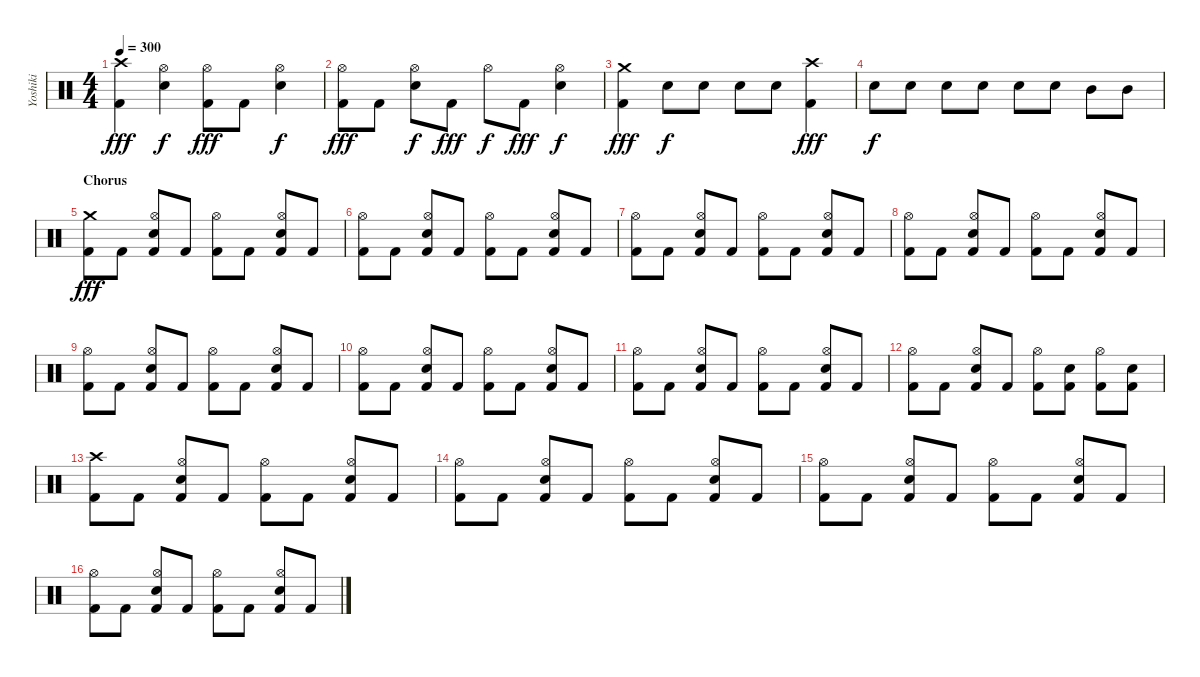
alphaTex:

\track ("Yoshiki" "Yoshiki") {instrument percussion}
\staff {score}
\articulation defaults
\ts (4 4)
\tempo 300
\clef neutral
\ks c
("Crash high (hit)" "Kick (hit) 2").4{dy fff} ("Hi-Hat (open)" "Snare (hit) 2").4{dy f} ("Hi-Hat (open)" "Kick (hit) 2").8{dy fff} "Kick (hit) 2".8 ("Hi-Hat (open)" "Snare (hit) 2").4{dy f} |
("Hi-Hat (open)" "Kick (hit) 2").8{dy fff} "Kick (hit) 2".8 ("Hi-Hat (open)" "Snare (hit) 2").8{dy f} "Kick (hit) 2".8{dy fff} "Hi-Hat (open)".8{dy f} "Kick (hit) 2".8{dy fff} ("Hi-Hat (open)" "Snare (hit) 2").4{dy f} |
("Crash medium (hit)" "Kick (hit) 2").4{dy fff} "Snare (hit) 2".8{dy f} "Snare (hit) 2".8 "Snare (hit) 2".8 "Snare (hit) 2".8 ("Crash high (hit)" "Kick (hit) 2").4{dy fff} |
"Snare (hit) 2".8{dy f} "Snare (hit) 2".8 "Snare (hit) 2".8 "Snare (hit) 2".8 "Snare (hit) 2".8 "Snare (hit) 2".8 "Mid Tom (hit)".8 "Mid Tom (hit)".8 |
\section ("" "Chorus")
("Crash medium (hit)" "Kick (hit) 2").8{dy fff} "Kick (hit) 2".8 ("Hi-Hat (open)" "Snare (hit) 2" "Kick (hit) 2").8 "Kick (hit) 2".8 ("Hi-Hat (open)" "Kick (hit) 2").8 "Kick (hit) 2".8 ("Hi-Hat (open)" "Snare (hit) 2" "Kick (hit) 2").8 "Kick (hit) 2".8 |
("Hi-Hat (open)" "Kick (hit) 2").8 "Kick (hit) 2".8 ("Hi-Hat (open)" "Snare (hit) 2" "Kick (hit) 2").8 "Kick (hit) 2".8 ("Hi-Hat (open)" "Kick (hit) 2").8 "Kick (hit) 2".8 ("Hi-Hat (open)" "Snare (hit) 2" "Kick (hit) 2").8 "Kick (hit) 2".8 |
("Hi-Hat (open)" "Kick (hit) 2").8 "Kick (hit) 2".8 ("Hi-Hat (open)" "Snare (hit) 2" "Kick (hit) 2").8 "Kick (hit) 2".8 ("Hi-Hat (open)" "Kick (hit) 2").8 "Kick (hit) 2".8 ("Hi-Hat (open)" "Snare (hit) 2" "Kick (hit) 2").8 "Kick (hit) 2".8 |
("Hi-Hat (open)" "Kick (hit) 2").8 "Kick (hit) 2".8 ("Hi-Hat (open)" "Snare (hit) 2" "Kick (hit) 2").8 "Kick (hit) 2".8 ("Hi-Hat (open)" "Kick (hit) 2").8 "Kick (hit) 2".8 ("Hi-Hat (open)" "Snare (hit) 2" "Kick (hit) 2").8 "Kick (hit) 2".8 |
("Hi-Hat (open)" "Kick (hit) 2").8 "Kick (hit) 2".8 ("Hi-Hat (open)" "Snare (hit) 2" "Kick (hit) 2").8 "Kick (hit) 2".8 ("Hi-Hat (open)" "Kick (hit) 2").8 "Kick (hit) 2".8 ("Hi-Hat (open)" "Snare (hit) 2" "Kick (hit) 2").8 "Kick (hit) 2".8 |
("Hi-Hat (open)" "Kick (hit) 2").8 "Kick (hit) 2".8 ("Hi-Hat (open)" "Snare (hit) 2" "Kick (hit) 2").8 "Kick (hit) 2".8 ("Hi-Hat (open)" "Kick (hit) 2").8 "Kick (hit) 2".8 ("Hi-Hat (open)" "Snare (hit) 2" "Kick (hit) 2").8 "Kick (hit) 2".8 |
("Hi-Hat (open)" "Kick (hit) 2").8 "Kick (hit) 2".8 ("Hi-Hat (open)" "Snare (hit) 2" "Kick (hit) 2").8 "Kick (hit) 2".8 ("Hi-Hat (open)" "Kick (hit) 2").8 "Kick (hit) 2".8 ("Hi-Hat (open)" "Snare (hit) 2" "Kick (hit) 2").8 "Kick (hit) 2".8 |
("Hi-Hat (open)" "Kick (hit) 2").8 "Kick (hit) 2".8 ("Hi-Hat (open)" "Snare (hit) 2" "Kick (hit) 2").8 "Kick (hit) 2".8 ("Hi-Hat (open)" "Kick (hit) 2").8 ("Snare (hit) 2" "Kick (hit) 2").8 ("Hi-Hat (open)" "Kick (hit) 2").8 ("Snare (hit) 2" "Kick (hit) 2").8 |
("Crash high (hit)" "Kick (hit) 2").8 "Kick (hit) 2".8 ("Hi-Hat (open)" "Snare (hit) 2" "Kick (hit) 2").8 "Kick (hit) 2".8 ("Hi-Hat (open)" "Kick (hit) 2").8 "Kick (hit) 2".8 ("Hi-Hat (open)" "Snare (hit) 2" "Kick (hit) 2").8 "Kick (hit) 2".8 |
("Hi-Hat (open)" "Kick (hit) 2").8 "Kick (hit) 2".8 ("Hi-Hat (open)" "Snare (hit) 2" "Kick (hit) 2").8 "Kick (hit) 2".8 ("Hi-Hat (open)" "Kick (hit) 2").8 "Kick (hit) 2".8 ("Hi-Hat (open)" "Snare (hit) 2" "Kick (hit) 2").8 "Kick (hit) 2".8 |
("Hi-Hat (open)" "Kick (hit) 2").8 "Kick (hit) 2".8 ("Hi-Hat (open)" "Snare (hit) 2" "Kick (hit) 2").8 "Kick (hit) 2".8 ("Hi-Hat (open)" "Kick (hit) 2").8 "Kick (hit) 2".8 ("Hi-Hat (open)" "Snare (hit) 2" "Kick (hit) 2").8 "Kick (hit) 2".8 |
("Hi-Hat (open)" "Kick (hit) 2").8 "Kick (hit) 2".8 ("Hi-Hat (open)" "Snare (hit) 2" "Kick (hit) 2").8 "Kick (hit) 2".8 ("Hi-Hat (open)" "Kick (hit) 2").8 "Kick (hit) 2".8 ("Hi-Hat (open)" "Snare (hit) 2" "Kick (hit) 2").8 "Kick (hit) 2".8
